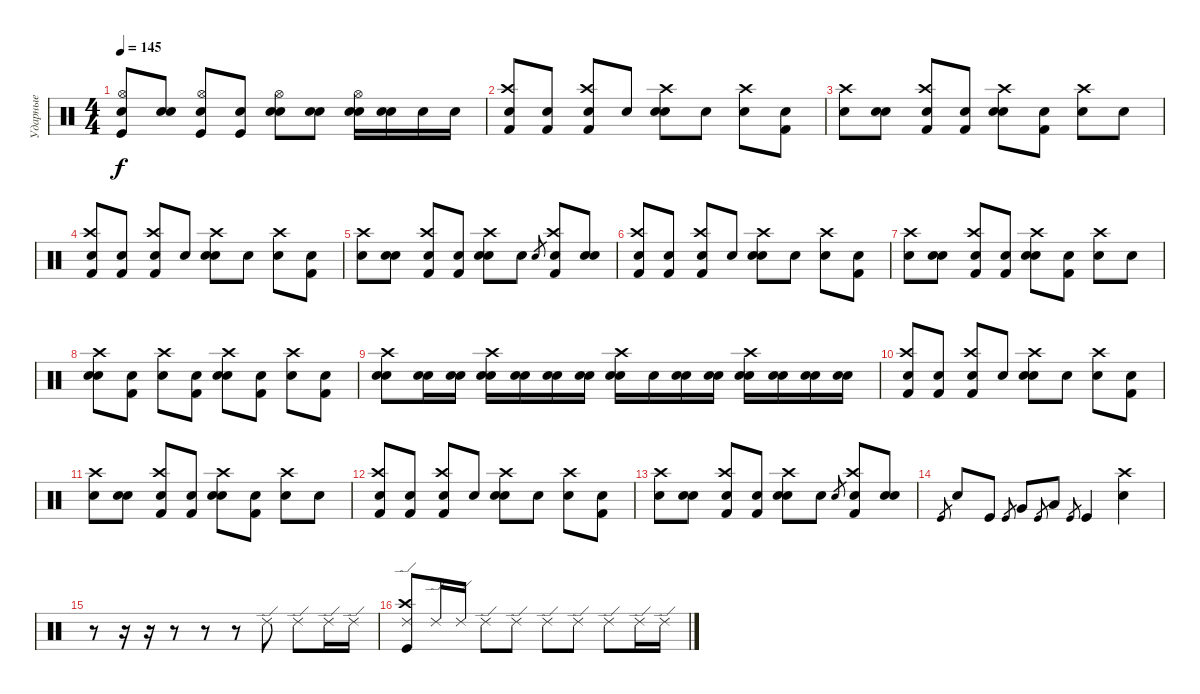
\track ("Ударные" "Ударные") {instrument percussion}
\staff {score}
\articulation defaults
\ts (4 4)
\tempo 145
\clef neutral
\ks c
("Kick (hit)" "Hi-Hat (open)" "Snare (hit)"{x}).8{dy f} ("Snare (hit) 2" "Snare (hit)"{x}).8 ("Kick (hit)" "Hi-Hat (open)" "Snare (hit)"{x}).8 ("Kick (hit)" "Snare (hit)"{x}).8 ("Snare (hit) 2" "Hi-Hat (open)" "Snare (hit)"{x}).8 ("Snare (hit) 2" "Snare (hit)"{x}).8 ("Snare (hit) 2" "Hi-Hat (open)" "Snare (hit)"{x}).16 ("Snare (hit) 2" "Snare (hit)"{x}).16 "Snare (hit) 2".16 "Snare (hit) 2".16 |
("Crash high (hit)" "Kick (hit) 2" "Snare (hit)"{x}).8 ("Kick (hit) 2" "Snare (hit)"{x}).8 ("Crash high (hit)" "Kick (hit) 2" "Snare (hit)"{x}).8 "Snare (hit)"{x}.8 ("Crash high (hit)" "Snare (hit) 2" "Snare (hit)"{x}).8 "Snare (hit)"{x}.8 ("Crash high (hit)" "Snare (hit)"{x}).8 ("Kick (hit) 2" "Snare (hit)"{x}).8 |
("Crash high (hit)" "Snare (hit)"{x}).8 ("Snare (hit) 2" "Snare (hit)"{x}).8 ("Crash high (hit)" "Kick (hit) 2" "Snare (hit)"{x}).8 ("Kick (hit) 2" "Snare (hit)"{x}).8 ("Crash high (hit)" "Snare (hit) 2" "Snare (hit)"{x}).8 ("Kick (hit) 2" "Snare (hit)"{x}).8 ("Crash high (hit)" "Snare (hit)"{x}).8 "Snare (hit)"{x}.8 |
("Crash high (hit)" "Kick (hit) 2" "Snare (hit)"{x}).8 ("Kick (hit) 2" "Snare (hit)"{x}).8 ("Crash high (hit)" "Kick (hit) 2" "Snare (hit)"{x}).8 "Snare (hit)"{x}.8 ("Crash high (hit)" "Snare (hit) 2" "Snare (hit)"{x}).8 "Snare (hit)"{x}.8 ("Crash high (hit)" "Snare (hit)"{x}).8 ("Kick (hit) 2" "Snare (hit)"{x}).8 |
("Crash high (hit)" "Snare (hit)"{x}).8 ("Snare (hit) 2" "Snare (hit)"{x}).8 ("Crash high (hit)" "Kick (hit) 2" "Snare (hit)"{x}).8 ("Kick (hit) 2" "Snare (hit)"{x}).8 ("Crash high (hit)" "Snare (hit) 2" "Snare (hit)"{x}).8 "Snare (hit)"{x}.8 "Snare (hit) 2".8{gr} ("Crash high (hit)" "Kick (hit) 2" "Snare (hit)"{x}).8 ("Snare (hit) 2" "Snare (hit)"{x}).8 |
("Crash high (hit)" "Kick (hit) 2" "Snare (hit)"{x}).8 ("Kick (hit) 2" "Snare (hit)"{x}).8 ("Crash high (hit)" "Kick (hit) 2" "Snare (hit)"{x}).8 "Snare (hit)"{x}.8 ("Crash high (hit)" "Snare (hit) 2" "Snare (hit)"{x}).8 "Snare (hit)"{x}.8 ("Crash high (hit)" "Snare (hit)"{x}).8 ("Kick (hit) 2" "Snare (hit)"{x}).8 |
("Crash high (hit)" "Snare (hit)"{x}).8 ("Snare (hit) 2" "Snare (hit)"{x}).8 ("Crash high (hit)" "Kick (hit) 2" "Snare (hit)"{x}).8 ("Kick (hit) 2" "Snare (hit)"{x}).8 ("Crash high (hit)" "Snare (hit) 2" "Snare (hit)"{x}).8 ("Kick (hit) 2" "Snare (hit)"{x}).8 ("Crash high (hit)" "Snare (hit)"{x}).8 "Snare (hit)"{x}.8 |
("Crash high (hit)" "Snare (hit) 2" "Snare (hit)"{x}).8 ("Kick (hit) 2" "Snare (hit)"{x}).8 ("Crash high (hit)" "Snare (hit)"{x}).8 ("Kick (hit) 2" "Snare (hit)"{x}).8 ("Crash high (hit)" "Snare (hit) 2" "Snare (hit)"{x}).8 ("Kick (hit) 2" "Snare (hit)"{x}).8 ("Crash high (hit)" "Snare (hit)"{x}).8 ("Kick (hit) 2" "Snare (hit)"{x}).8 |
("Crash high (hit)" "Snare (hit) 2" "Snare (hit)"{x}).8 ("Snare (hit) 2" "Snare (hit)"{x}).16 ("Snare (hit) 2" "Snare (hit)"{x}).16 ("Crash high (hit)" "Snare (hit) 2" "Snare (hit)"{x}).16 ("Snare (hit) 2" "Snare (hit)"{x}).16 ("Snare (hit) 2" "Snare (hit)"{x}).16 ("Snare (hit) 2" "Snare (hit)"{x}).16 ("Crash high (hit)" "Snare (hit) 2" "Snare (hit)"{x}).16 "Snare (hit)"{x}.16 ("Snare (hit) 2" "Snare (hit)"{x}).16 ("Snare (hit) 2" "Snare (hit)"{x}).16 ("Crash high (hit)" "Snare (hit) 2" "Snare (hit)"{x}).16 ("Snare (hit) 2" "Snare (hit)"{x}).16 ("Snare (hit) 2" "Snare (hit)"{x}).16 ("Snare (hit) 2" "Snare (hit)"{x}).16 |
("Crash high (hit)" "Kick (hit) 2" "Snare (hit)"{x}).8 ("Kick (hit) 2" "Snare (hit)"{x}).8 ("Crash high (hit)" "Kick (hit) 2" "Snare (hit)"{x}).8 "Snare (hit)"{x}.8 ("Crash high (hit)" "Snare (hit) 2" "Snare (hit)"{x}).8 "Snare (hit)"{x}.8 ("Crash high (hit)" "Snare (hit)"{x}).8 ("Kick (hit) 2" "Snare (hit)"{x}).8 |
("Crash high (hit)" "Snare (hit)"{x}).8 ("Snare (hit) 2" "Snare (hit)"{x}).8 ("Crash high (hit)" "Kick (hit) 2" "Snare (hit)"{x}).8 ("Kick (hit) 2" "Snare (hit)"{x}).8 ("Crash high (hit)" "Snare (hit) 2" "Snare (hit)"{x}).8 ("Kick (hit) 2" "Snare (hit)"{x}).8 ("Crash high (hit)" "Snare (hit)"{x}).8 "Snare (hit)"{x}.8 |
("Crash high (hit)" "Kick (hit) 2" "Snare (hit)"{x}).8 ("Kick (hit) 2" "Snare (hit)"{x}).8 ("Crash high (hit)" "Kick (hit) 2" "Snare (hit)"{x}).8 "Snare (hit)"{x}.8 ("Crash high (hit)" "Snare (hit) 2" "Snare (hit)"{x}).8 "Snare (hit)"{x}.8 ("Crash high (hit)" "Snare (hit)"{x}).8 ("Kick (hit) 2" "Snare (hit)"{x}).8 |
("Crash high (hit)" "Snare (hit)"{x}).8 ("Snare (hit) 2" "Snare (hit)"{x}).8 ("Crash high (hit)" "Kick (hit) 2" "Snare (hit)"{x}).8 ("Kick (hit) 2" "Snare (hit)"{x}).8 ("Crash high (hit)" "Snare (hit) 2" "Snare (hit)"{x}).8 "Snare (hit)"{x}.8 "Snare (hit) 2".8{gr} ("Crash high (hit)" "Kick (hit) 2" "Snare (hit)"{x}).8 ("Snare (hit) 2" "Snare (hit)"{x}).8 |
"Kick (hit)".8{gr} "Snare (hit) 2".8 "Kick (hit)".8 "Kick (hit)".8{gr} "Very Low Tom (hit)".8 "Kick (hit)".8{gr} "Low Floor Tom (hit)".8 "Kick (hit)".8{gr} "Kick (hit)".4 ("Crash high (hit)" "Snare (hit) 2").4 |
r.8 r.16 r.16 r.8 r.8 r.8 "Ride (edge) 2".8 "Ride (edge) 2".8 "Ride (edge) 2".16 "Ride (edge) 2".16 |
("Ride (edge) 2" "Crash high (hit)" "Kick (hit)").8 "Ride (edge) 2".16 "Ride (edge) 2".16 "Ride (edge) 2".8 "Ride (edge) 2".8 "Ride (edge) 2".8 "Ride (edge) 2".8 "Ride (edge) 2".8 "Ride (edge) 2".16 "Ride (edge) 2".16
